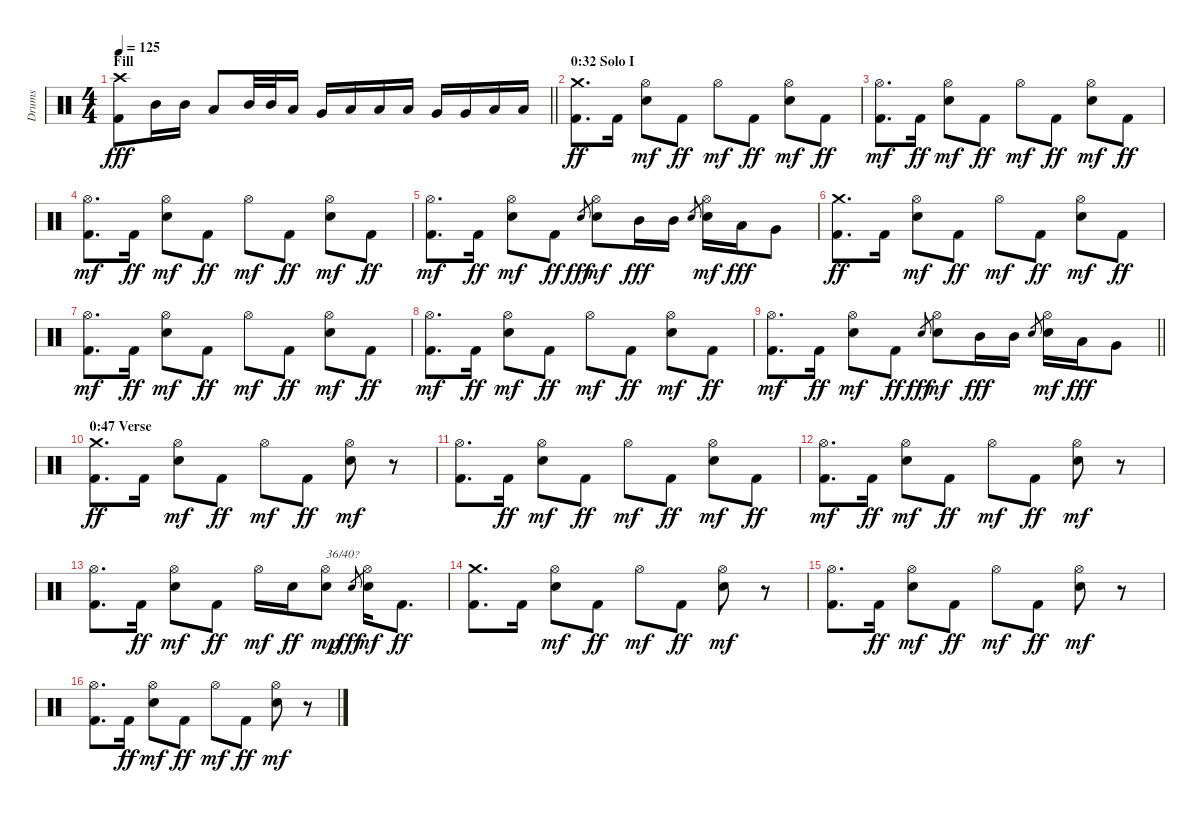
\track ("Drums" "Drums") {instrument percussion}
\staff {score}
\articulation defaults
\ts (4 4)
\section ("" "Fill")
\tempo 125
\clef neutral
\barLineRight lightlight
\ks c
("Kick (hit) 2" "Crash high (hit)").8{dy fff} "Mid Tom (hit)".16 "Mid Tom (hit)".16 "Low Tom (hit)".8 "Mid Tom (hit)".32 "Mid Tom (hit)".32 "Low Tom (hit)".16 "Very Low Tom (hit)".16 "Low Tom (hit)".16 "Low Tom (hit)".16 "Low Tom (hit)".16 "Very Low Tom (hit)".16 "Very Low Tom (hit)".16 "Low Floor Tom (hit)".16 "Low Floor Tom (hit)".16 |
\section ("" "0:32 Solo I ")
("Kick (hit) 2" "Crash medium (hit)").8{d dy ff} "Kick (hit) 2".16 ("Electric Snare (hit)" "Hi-Hat (open)").8{dy mf} "Kick (hit) 2".8{dy ff} "Hi-Hat (open)".8{dy mf} "Kick (hit) 2".8{dy ff} ("Electric Snare (hit)" "Hi-Hat (open)").8{dy mf} "Kick (hit) 2".8{dy ff} |
("Kick (hit) 2" "Hi-Hat (open)").8{d dy mf} "Kick (hit) 2".16{dy ff} ("Electric Snare (hit)" "Hi-Hat (open)").8{dy mf} "Kick (hit) 2".8{dy ff} "Hi-Hat (open)".8{dy mf} "Kick (hit) 2".8{dy ff} ("Electric Snare (hit)" "Hi-Hat (open)").8{dy mf} "Kick (hit) 2".8{dy ff} |
("Kick (hit) 2" "Hi-Hat (open)").8{d dy mf} "Kick (hit) 2".16{dy ff} ("Electric Snare (hit)" "Hi-Hat (open)").8{dy mf} "Kick (hit) 2".8{dy ff} "Hi-Hat (open)".8{dy mf} "Kick (hit) 2".8{dy ff} ("Electric Snare (hit)" "Hi-Hat (open)").8{dy mf} "Kick (hit) 2".8{dy ff} |
("Kick (hit) 2" "Hi-Hat (open)").8{d dy mf} "Kick (hit) 2".16{dy ff} ("Electric Snare (hit)" "Hi-Hat (open)").8{dy mf} "Kick (hit) 2".8{dy ff} "Electric Snare (hit)".8{gr dy fff} ("Electric Snare (hit)" "Hi-Hat (open)").8{dy mf} "Mid Tom (hit)".16{dy fff} "Mid Tom (hit)".16 "Electric Snare (hit)".8{gr} ("Electric Snare (hit)" "Hi-Hat (open)").16{dy mf} "Low Tom (hit)".16{dy fff} "Very Low Tom (hit)".8 |
("Kick (hit) 2" "Crash medium (hit)").8{d dy ff} "Kick (hit) 2".16 ("Electric Snare (hit)" "Hi-Hat (open)").8{dy mf} "Kick (hit) 2".8{dy ff} "Hi-Hat (open)".8{dy mf} "Kick (hit) 2".8{dy ff} ("Electric Snare (hit)" "Hi-Hat (open)").8{dy mf} "Kick (hit) 2".8{dy ff} |
("Kick (hit) 2" "Hi-Hat (open)").8{d dy mf} "Kick (hit) 2".16{dy ff} ("Electric Snare (hit)" "Hi-Hat (open)").8{dy mf} "Kick (hit) 2".8{dy ff} "Hi-Hat (open)".8{dy mf} "Kick (hit) 2".8{dy ff} ("Electric Snare (hit)" "Hi-Hat (open)").8{dy mf} "Kick (hit) 2".8{dy ff} |
("Kick (hit) 2" "Hi-Hat (open)").8{d dy mf} "Kick (hit) 2".16{dy ff} ("Electric Snare (hit)" "Hi-Hat (open)").8{dy mf} "Kick (hit) 2".8{dy ff} "Hi-Hat (open)".8{dy mf} "Kick (hit) 2".8{dy ff} ("Electric Snare (hit)" "Hi-Hat (open)").8{dy mf} "Kick (hit) 2".8{dy ff} |
\barLineRight lightlight
("Kick (hit) 2" "Hi-Hat (open)").8{d dy mf} "Kick (hit) 2".16{dy ff} ("Electric Snare (hit)" "Hi-Hat (open)").8{dy mf} "Kick (hit) 2".8{dy ff} "Electric Snare (hit)".8{gr dy fff} ("Electric Snare (hit)" "Hi-Hat (open)").8{dy mf} "Mid Tom (hit)".16{dy fff} "Mid Tom (hit)".16 "Electric Snare (hit)".8{gr} ("Electric Snare (hit)" "Hi-Hat (open)").16{dy mf} "Low Tom (hit)".16{dy fff} "Very Low Tom (hit)".8 |
\section ("" "0:47 Verse")
("Kick (hit) 2" "Crash medium (hit)").8{d dy ff} "Kick (hit) 2".16 ("Electric Snare (hit)" "Hi-Hat (open)").8{dy mf} "Kick (hit) 2".8{dy ff} "Hi-Hat (open)".8{dy mf} "Kick (hit) 2".8{dy ff} ("Electric Snare (hit)" "Hi-Hat (open)").8{dy mf} r.8 |
("Kick (hit) 2" "Hi-Hat (open)").8{d} "Kick (hit) 2".16{dy ff} ("Electric Snare (hit)" "Hi-Hat (open)").8{dy mf} "Kick (hit) 2".8{dy ff} "Hi-Hat (open)".8{dy mf} "Kick (hit) 2".8{dy ff} ("Electric Snare (hit)" "Hi-Hat (open)").8{dy mf} "Kick (hit) 2".8{dy ff} |
("Kick (hit) 2" "Hi-Hat (open)").8{d dy mf} "Kick (hit) 2".16{dy ff} ("Electric Snare (hit)" "Hi-Hat (open)").8{dy mf} "Kick (hit) 2".8{dy ff} "Hi-Hat (open)".8{dy mf} "Kick (hit) 2".8{dy ff} ("Electric Snare (hit)" "Hi-Hat (open)").8{dy mf} r.8 |
("Kick (hit) 2" "Hi-Hat (open)").8{d} "Kick (hit) 2".16{dy ff} ("Electric Snare (hit)" "Hi-Hat (open)").8{dy mf} "Kick (hit) 2".8{dy ff} "Hi-Hat (open)".16{dy mf} "Electric Snare (hit)".16{dy ff} ("Electric Snare (hit)" "Hi-Hat (open)").8{txt "36/40?" dy mp} "Electric Snare (hit)".8{gr dy fff} ("Electric Snare (hit)" "Hi-Hat (open)").16{dy mf} "Kick (hit) 2".8{d dy ff} |
("Kick (hit) 2" "Crash medium (hit)").8{d} "Kick (hit) 2".16 ("Electric Snare (hit)" "Hi-Hat (open)").8{dy mf} "Kick (hit) 2".8{dy ff} "Hi-Hat (open)".8{dy mf} "Kick (hit) 2".8{dy ff} ("Electric Snare (hit)" "Hi-Hat (open)").8{dy mf} r.8 |
("Kick (hit) 2" "Hi-Hat (open)").8{d} "Kick (hit) 2".16{dy ff} ("Electric Snare (hit)" "Hi-Hat (open)").8{dy mf} "Kick (hit) 2".8{dy ff} "Hi-Hat (open)".8{dy mf} "Kick (hit) 2".8{dy ff} ("Electric Snare (hit)" "Hi-Hat (open)").8{dy mf} r.8 |
("Kick (hit) 2" "Hi-Hat (open)").8{d} "Kick (hit) 2".16{dy ff} ("Electric Snare (hit)" "Hi-Hat (open)").8{dy mf} "Kick (hit) 2".8{dy ff} "Hi-Hat (open)".8{dy mf} "Kick (hit) 2".8{dy ff} ("Electric Snare (hit)" "Hi-Hat (open)").8{dy mf} r.8
